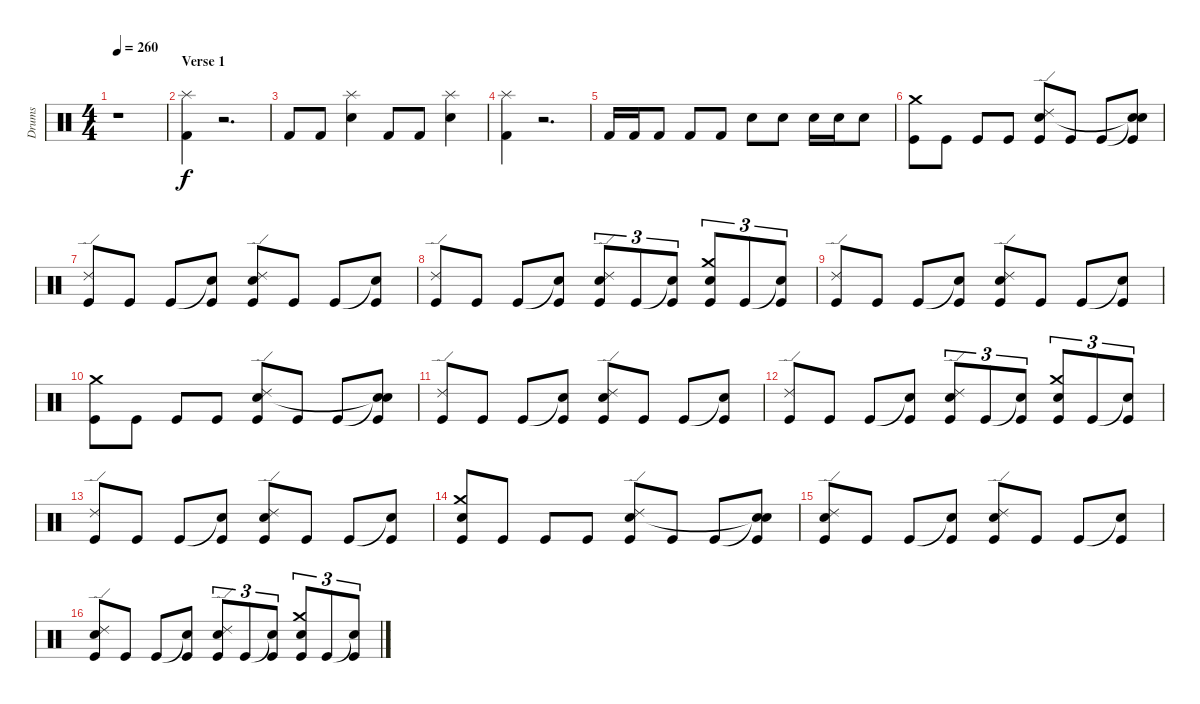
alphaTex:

\track ("Drums" "Drums") {instrument percussion}
\staff {score}
\articulation defaults
\ts (4 4)
\tempo 260
\clef neutral
\ks c
r.1{dy f} |
\section ("" "Verse 1")
("Splash (hit)" "Kick (hit) 2").4 r.2{d} |
"Kick (hit) 2".8 "Kick (hit) 2".8 ("Splash (hit)" "Electric Snare (hit)").4 "Kick (hit) 2".8 "Kick (hit) 2".8 ("Splash (hit)" "Electric Snare (hit)").4 |
("Splash (hit)" "Kick (hit) 2").4 r.2{d} |
"Kick (hit) 2".16 "Kick (hit) 2".16 "Kick (hit) 2".8 "Kick (hit) 2".8 "Kick (hit) 2".8 "Electric Snare (hit)".8 "Electric Snare (hit)".8 "Electric Snare (hit)".16 "Electric Snare (hit)".16 "Electric Snare (hit)".8 |
("Crash medium (hit)" "Kick (hit)").8 "Kick (hit)".8 "Kick (hit)".8 "Kick (hit)".8 ("Ride (edge) 2" "Electric Snare (hit)" "Kick (hit)").8 "Kick (hit)".8 "Kick (hit)".8 ("Snare (hit)"{t} "Snare (hit)"{t} "Kick (hit)").8 |
("Ride (edge) 2" "Kick (hit)").8 "Kick (hit)".8 "Kick (hit)".8 ("Snare (hit)"{t} "Kick (hit)").8 ("Ride (edge) 2" "Electric Snare (hit)" "Kick (hit)").8 "Kick (hit)".8 "Kick (hit)".8 ("Snare (hit)"{t} "Kick (hit)").8 |
("Ride (edge) 2" "Kick (hit)").8 "Kick (hit)".8 "Kick (hit)".8 ("Snare (hit)"{t} "Kick (hit)").8 ("Ride (edge) 2" "Electric Snare (hit)" "Kick (hit)").8{tu (3 2)} "Kick (hit)".8{tu (3 2)} ("Snare (hit)"{t} "Kick (hit)").8{tu (3 2)} ("Crash medium (hit)" "Electric Snare (hit)" "Kick (hit)").8{tu (3 2)} "Kick (hit)".8{tu (3 2)} ("Snare (hit)"{t} "Kick (hit)").8{tu (3 2)} |
("Ride (edge) 2" "Kick (hit)").8 "Kick (hit)".8 "Kick (hit)".8 ("Snare (hit)"{t} "Kick (hit)").8 ("Ride (edge) 2" "Electric Snare (hit)" "Kick (hit)").8 "Kick (hit)".8 "Kick (hit)".8 ("Snare (hit)"{t} "Kick (hit)").8 |
("Crash medium (hit)" "Kick (hit)").8 "Kick (hit)".8 "Kick (hit)".8 "Kick (hit)".8 ("Ride (edge) 2" "Electric Snare (hit)" "Kick (hit)").8 "Kick (hit)".8 "Kick (hit)".8 ("Snare (hit)"{t} "Snare (hit)"{t} "Kick (hit)").8 |
("Ride (edge) 2" "Kick (hit)").8 "Kick (hit)".8 "Kick (hit)".8 ("Snare (hit)"{t} "Kick (hit)").8 ("Ride (edge) 2" "Electric Snare (hit)" "Kick (hit)").8 "Kick (hit)".8 "Kick (hit)".8 ("Snare (hit)"{t} "Kick (hit)").8 |
("Ride (edge) 2" "Kick (hit)").8 "Kick (hit)".8 "Kick (hit)".8 ("Snare (hit)"{t} "Kick (hit)").8 ("Ride (edge) 2" "Electric Snare (hit)" "Kick (hit)").8{tu (3 2)} "Kick (hit)".8{tu (3 2)} ("Snare (hit)"{t} "Kick (hit)").8{tu (3 2)} ("Crash medium (hit)" "Electric Snare (hit)" "Kick (hit)").8{tu (3 2)} "Kick (hit)".8{tu (3 2)} ("Snare (hit)"{t} "Kick (hit)").8{tu (3 2)} |
("Ride (edge) 2" "Kick (hit)").8 "Kick (hit)".8 "Kick (hit)".8 ("Snare (hit)"{t} "Kick (hit)").8 ("Ride (edge) 2" "Electric Snare (hit)" "Kick (hit)").8 "Kick (hit)".8 "Kick (hit)".8 ("Snare (hit)"{t} "Kick (hit)").8 |
("Crash medium (hit)" "Electric Snare (hit)" "Kick (hit)").8 "Kick (hit)".8 "Kick (hit)".8 "Kick (hit)".8 ("Ride (edge) 2" "Electric Snare (hit)" "Kick (hit)").8 "Kick (hit)".8 "Kick (hit)".8 ("Snare (hit)"{t} "Snare (hit)"{t} "Kick (hit)").8 |
("Ride (edge) 2" "Electric Snare (hit)" "Kick (hit)").8 "Kick (hit)".8 "Kick (hit)".8 ("Snare (hit)"{t} "Kick (hit)").8 ("Ride (edge) 2" "Electric Snare (hit)" "Kick (hit)").8 "Kick (hit)".8 "Kick (hit)".8 ("Snare (hit)"{t} "Kick (hit)").8 |
("Ride (edge) 2" "Electric Snare (hit)" "Kick (hit)").8 "Kick (hit)".8 "Kick (hit)".8 ("Snare (hit)"{t} "Kick (hit)").8 ("Ride (edge) 2" "Electric Snare (hit)" "Kick (hit)").8{tu (3 2)} "Kick (hit)".8{tu (3 2)} ("Snare (hit)"{t} "Kick (hit)").8{tu (3 2)} ("Crash medium (hit)" "Electric Snare (hit)" "Kick (hit)").8{tu (3 2)} "Kick (hit)".8{tu (3 2)} ("Snare (hit)"{t} "Kick (hit)").8{tu (3 2)}
